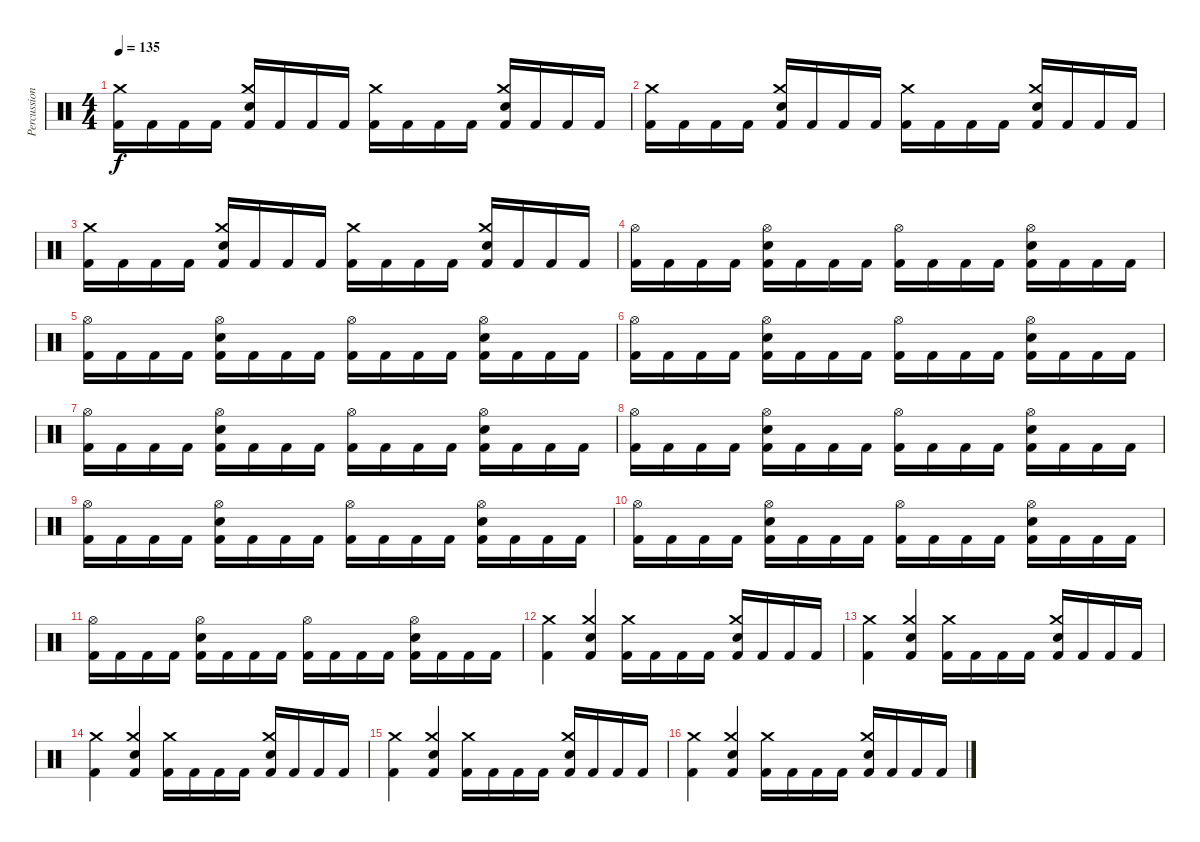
\track ("Percussion" "Percussion") {instrument percussion}
\staff {score}
\articulation defaults
\ts (4 4)
\tempo 135
\clef neutral
\ks c
("Kick (hit) 2" "Crash medium (hit)").16{dy f} "Kick (hit) 2".16 "Kick (hit) 2".16 "Kick (hit) 2".16 ("Kick (hit) 2" "Crash medium (hit)" "Electric Snare (hit)").16 "Kick (hit) 2".16 "Kick (hit) 2".16 "Kick (hit) 2".16 ("Kick (hit) 2" "Crash medium (hit)").16 "Kick (hit) 2".16 "Kick (hit) 2".16 "Kick (hit) 2".16 ("Kick (hit) 2" "Crash medium (hit)" "Electric Snare (hit)").16 "Kick (hit) 2".16 "Kick (hit) 2".16 "Kick (hit) 2".16 |
("Kick (hit) 2" "Crash medium (hit)").16 "Kick (hit) 2".16 "Kick (hit) 2".16 "Kick (hit) 2".16 ("Kick (hit) 2" "Crash medium (hit)" "Electric Snare (hit)").16 "Kick (hit) 2".16 "Kick (hit) 2".16 "Kick (hit) 2".16 ("Kick (hit) 2" "Crash medium (hit)").16 "Kick (hit) 2".16 "Kick (hit) 2".16 "Kick (hit) 2".16 ("Kick (hit) 2" "Crash medium (hit)" "Electric Snare (hit)").16 "Kick (hit) 2".16 "Kick (hit) 2".16 "Kick (hit) 2".16 |
("Kick (hit) 2" "Crash medium (hit)").16 "Kick (hit) 2".16 "Kick (hit) 2".16 "Kick (hit) 2".16 ("Kick (hit) 2" "Crash medium (hit)" "Electric Snare (hit)").16 "Kick (hit) 2".16 "Kick (hit) 2".16 "Kick (hit) 2".16 ("Kick (hit) 2" "Crash medium (hit)").16 "Kick (hit) 2".16 "Kick (hit) 2".16 "Kick (hit) 2".16 ("Kick (hit) 2" "Crash medium (hit)" "Electric Snare (hit)").16 "Kick (hit) 2".16 "Kick (hit) 2".16 "Kick (hit) 2".16 |
("Kick (hit) 2" "Hi-Hat (open)").16 "Kick (hit) 2".16 "Kick (hit) 2".16 "Kick (hit) 2".16 ("Kick (hit) 2" "Hi-Hat (open)" "Electric Snare (hit)").16 "Kick (hit) 2".16 "Kick (hit) 2".16 "Kick (hit) 2".16 ("Kick (hit) 2" "Hi-Hat (open)").16 "Kick (hit) 2".16 "Kick (hit) 2".16 "Kick (hit) 2".16 ("Kick (hit) 2" "Hi-Hat (open)" "Electric Snare (hit)").16 "Kick (hit) 2".16 "Kick (hit) 2".16 "Kick (hit) 2".16 |
("Kick (hit) 2" "Hi-Hat (open)").16 "Kick (hit) 2".16 "Kick (hit) 2".16 "Kick (hit) 2".16 ("Kick (hit) 2" "Hi-Hat (open)" "Electric Snare (hit)").16 "Kick (hit) 2".16 "Kick (hit) 2".16 "Kick (hit) 2".16 ("Kick (hit) 2" "Hi-Hat (open)").16 "Kick (hit) 2".16 "Kick (hit) 2".16 "Kick (hit) 2".16 ("Kick (hit) 2" "Hi-Hat (open)" "Electric Snare (hit)").16 "Kick (hit) 2".16 "Kick (hit) 2".16 "Kick (hit) 2".16 |
("Kick (hit) 2" "Hi-Hat (open)").16 "Kick (hit) 2".16 "Kick (hit) 2".16 "Kick (hit) 2".16 ("Kick (hit) 2" "Hi-Hat (open)" "Electric Snare (hit)").16 "Kick (hit) 2".16 "Kick (hit) 2".16 "Kick (hit) 2".16 ("Kick (hit) 2" "Hi-Hat (open)").16 "Kick (hit) 2".16 "Kick (hit) 2".16 "Kick (hit) 2".16 ("Kick (hit) 2" "Hi-Hat (open)" "Electric Snare (hit)").16 "Kick (hit) 2".16 "Kick (hit) 2".16 "Kick (hit) 2".16 |
("Kick (hit) 2" "Hi-Hat (open)").16 "Kick (hit) 2".16 "Kick (hit) 2".16 "Kick (hit) 2".16 ("Kick (hit) 2" "Hi-Hat (open)" "Electric Snare (hit)").16 "Kick (hit) 2".16 "Kick (hit) 2".16 "Kick (hit) 2".16 ("Kick (hit) 2" "Hi-Hat (open)").16 "Kick (hit) 2".16 "Kick (hit) 2".16 "Kick (hit) 2".16 ("Kick (hit) 2" "Hi-Hat (open)" "Electric Snare (hit)").16 "Kick (hit) 2".16 "Kick (hit) 2".16 "Kick (hit) 2".16 |
("Kick (hit) 2" "Hi-Hat (open)").16 "Kick (hit) 2".16 "Kick (hit) 2".16 "Kick (hit) 2".16 ("Kick (hit) 2" "Hi-Hat (open)" "Electric Snare (hit)").16 "Kick (hit) 2".16 "Kick (hit) 2".16 "Kick (hit) 2".16 ("Kick (hit) 2" "Hi-Hat (open)").16 "Kick (hit) 2".16 "Kick (hit) 2".16 "Kick (hit) 2".16 ("Kick (hit) 2" "Hi-Hat (open)" "Electric Snare (hit)").16 "Kick (hit) 2".16 "Kick (hit) 2".16 "Kick (hit) 2".16 |
("Kick (hit) 2" "Hi-Hat (open)").16 "Kick (hit) 2".16 "Kick (hit) 2".16 "Kick (hit) 2".16 ("Kick (hit) 2" "Hi-Hat (open)" "Electric Snare (hit)").16 "Kick (hit) 2".16 "Kick (hit) 2".16 "Kick (hit) 2".16 ("Kick (hit) 2" "Hi-Hat (open)").16 "Kick (hit) 2".16 "Kick (hit) 2".16 "Kick (hit) 2".16 ("Kick (hit) 2" "Hi-Hat (open)" "Electric Snare (hit)").16 "Kick (hit) 2".16 "Kick (hit) 2".16 "Kick (hit) 2".16 |
("Kick (hit) 2" "Hi-Hat (open)").16 "Kick (hit) 2".16 "Kick (hit) 2".16 "Kick (hit) 2".16 ("Kick (hit) 2" "Hi-Hat (open)" "Electric Snare (hit)").16 "Kick (hit) 2".16 "Kick (hit) 2".16 "Kick (hit) 2".16 ("Kick (hit) 2" "Hi-Hat (open)").16 "Kick (hit) 2".16 "Kick (hit) 2".16 "Kick (hit) 2".16 ("Kick (hit) 2" "Hi-Hat (open)" "Electric Snare (hit)").16 "Kick (hit) 2".16 "Kick (hit) 2".16 "Kick (hit) 2".16 |
("Kick (hit) 2" "Hi-Hat (open)").16 "Kick (hit) 2".16 "Kick (hit) 2".16 "Kick (hit) 2".16 ("Kick (hit) 2" "Hi-Hat (open)" "Electric Snare (hit)").16 "Kick (hit) 2".16 "Kick (hit) 2".16 "Kick (hit) 2".16 ("Kick (hit) 2" "Hi-Hat (open)").16 "Kick (hit) 2".16 "Kick (hit) 2".16 "Kick (hit) 2".16 ("Kick (hit) 2" "Hi-Hat (open)" "Electric Snare (hit)").16 "Kick (hit) 2".16 "Kick (hit) 2".16 "Kick (hit) 2".16 |
("Kick (hit) 2" "Crash medium (hit)").4 ("Kick (hit) 2" "Electric Snare (hit)" "Crash medium (hit)").4 ("Kick (hit) 2" "Crash medium (hit)").16 "Kick (hit) 2".16 "Kick (hit) 2".16 "Kick (hit) 2".16 ("Kick (hit) 2" "Crash medium (hit)" "Electric Snare (hit)").16 "Kick (hit) 2".16 "Kick (hit) 2".16 "Kick (hit) 2".16 |
("Kick (hit) 2" "Crash medium (hit)").4 ("Kick (hit) 2" "Electric Snare (hit)" "Crash medium (hit)").4 ("Kick (hit) 2" "Crash medium (hit)").16 "Kick (hit) 2".16 "Kick (hit) 2".16 "Kick (hit) 2".16 ("Kick (hit) 2" "Crash medium (hit)" "Electric Snare (hit)").16 "Kick (hit) 2".16 "Kick (hit) 2".16 "Kick (hit) 2".16 |
("Kick (hit) 2" "Crash medium (hit)").4 ("Kick (hit) 2" "Electric Snare (hit)" "Crash medium (hit)").4 ("Kick (hit) 2" "Crash medium (hit)").16 "Kick (hit) 2".16 "Kick (hit) 2".16 "Kick (hit) 2".16 ("Kick (hit) 2" "Crash medium (hit)" "Electric Snare (hit)").16 "Kick (hit) 2".16 "Kick (hit) 2".16 "Kick (hit) 2".16 |
("Kick (hit) 2" "Crash medium (hit)").4 ("Kick (hit) 2" "Electric Snare (hit)" "Crash medium (hit)").4 ("Kick (hit) 2" "Crash medium (hit)").16 "Kick (hit) 2".16 "Kick (hit) 2".16 "Kick (hit) 2".16 ("Kick (hit) 2" "Crash medium (hit)" "Electric Snare (hit)").16 "Kick (hit) 2".16 "Kick (hit) 2".16 "Kick (hit) 2".16 |
("Kick (hit) 2" "Crash medium (hit)").4 ("Kick (hit) 2" "Electric Snare (hit)" "Crash medium (hit)").4 ("Kick (hit) 2" "Crash medium (hit)").16 "Kick (hit) 2".16 "Kick (hit) 2".16 "Kick (hit) 2".16 ("Kick (hit) 2" "Crash medium (hit)" "Electric Snare (hit)").16 "Kick (hit) 2".16 "Kick (hit) 2".16 "Kick (hit) 2".16
